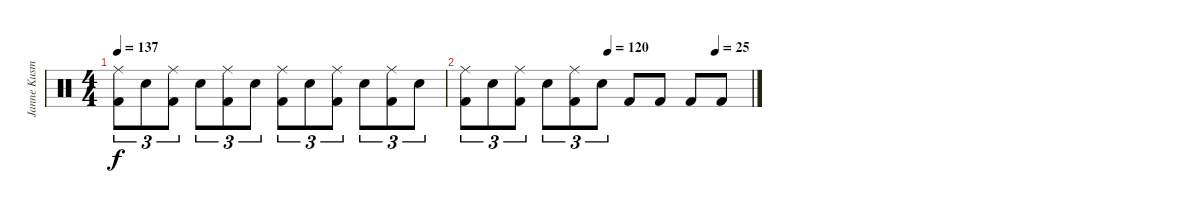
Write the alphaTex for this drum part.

\track ("Janne Kusmin" "Janne Kusm") {instrument percussion}
\staff {score}
\articulation defaults
\ts (4 4)
\tempo 137
\clef neutral
\ks c
("Ride (middle)" "Kick (hit) 2").8{tu (3 2) dy f} "Electric Snare (hit)".8{tu (3 2)} ("Ride (middle)" "Kick (hit) 2").8{tu (3 2)} "Electric Snare (hit)".8{tu (3 2)} ("Ride (middle)" "Kick (hit) 2").8{tu (3 2)} "Electric Snare (hit)".8{tu (3 2)} ("Ride (middle)" "Kick (hit) 2").8{tu (3 2)} "Electric Snare (hit)".8{tu (3 2)} ("Ride (middle)" "Kick (hit) 2").8{tu (3 2)} "Electric Snare (hit)".8{tu (3 2)} ("Ride (middle)" "Kick (hit) 2").8{tu (3 2)} "Electric Snare (hit)".8{tu (3 2)} |
\tempo (120 0.5)
\tempo (25 0.875)
("Ride (middle)" "Kick (hit) 2").8{tu (3 2)} "Electric Snare (hit)".8{tu (3 2)} ("Ride (middle)" "Kick (hit) 2").8{tu (3 2)} "Electric Snare (hit)".8{tu (3 2)} ("Ride (middle)" "Kick (hit) 2").8{tu (3 2)} "Electric Snare (hit)".8{tu (3 2)} "Kick (hit) 2".8 "Kick (hit) 2".8 "Kick (hit) 2".8 "Kick (hit) 2".8
